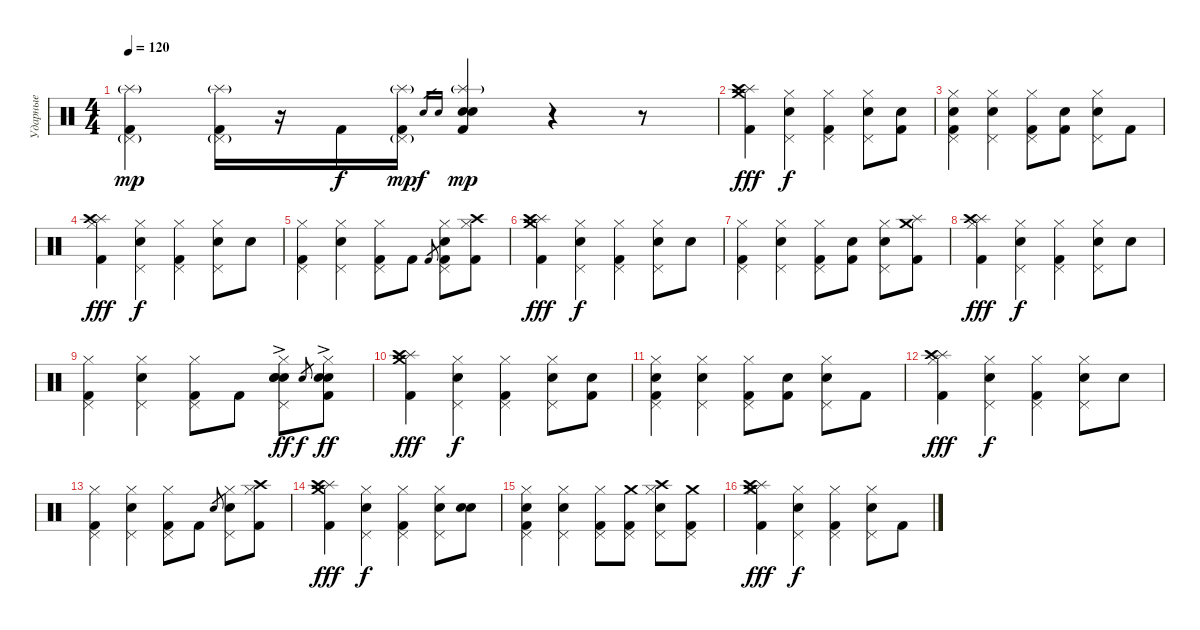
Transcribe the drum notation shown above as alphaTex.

\track ("Ударные" "Ударные") {instrument percussion bank 2}
\staff {score}
\articulation defaults
\ts (4 4)
\tempo 120
\clef neutral
\ks c
("Kick (hit) 2" "Pedal Hi-Hat (hit)"{g} "Splash (hit)"{g}).4{dy mp} ("Kick (hit) 2" "Pedal Hi-Hat (hit)"{g} "Splash (hit)"{g}).16 r.16 "Kick (hit) 2".16{dy f} ("Kick (hit) 2" "Pedal Hi-Hat (hit)"{g} "Splash (hit)"{g}).16{dy mp} "Electric Snare (hit)".16{gr dy f} "Snare (hit) 2".16{gr} ("Kick (hit) 2" "Electric Snare (hit)" "Splash (hit)"{g} "Snare (hit) 2").4{dy mp} r.4 r.8 |
("Kick (hit) 2" "Splash (hit)" "Crash medium (hit)" "Crash high (hit)").4{dy fff} ("Snare (hit) 2" "Pedal Hi-Hat (hit)" "Hi-Hat (closed)").4{dy f} ("Kick (hit) 2" "Pedal Hi-Hat (hit)" "Hi-Hat (closed)").4 ("Snare (hit) 2" "Pedal Hi-Hat (hit)" "Hi-Hat (closed)").8 ("Kick (hit) 2" "Snare (hit)").8 |
("Kick (hit) 2" "Snare (hit)" "Pedal Hi-Hat (hit)" "Hi-Hat (closed)").4 ("Snare (hit) 2" "Pedal Hi-Hat (hit)" "Hi-Hat (closed)").4 ("Kick (hit) 2" "Pedal Hi-Hat (hit)" "Hi-Hat (closed)").8 ("Kick (hit) 2" "Snare (hit)").8 ("Snare (hit) 2" "Pedal Hi-Hat (hit)" "Hi-Hat (closed)").8 "Kick (hit) 2".8 |
("Kick (hit) 2" "Splash (hit)" "Crash high (hit)" "Hi-Hat (closed)").4{dy fff} ("Snare (hit) 2" "Pedal Hi-Hat (hit)" "Hi-Hat (closed)").4{dy f} ("Kick (hit) 2" "Pedal Hi-Hat (hit)" "Hi-Hat (closed)").4 ("Snare (hit) 2" "Pedal Hi-Hat (hit)" "Hi-Hat (closed)").8 "Snare (hit)".8 |
("Kick (hit) 2" "Pedal Hi-Hat (hit)" "Hi-Hat (closed)").4 ("Snare (hit) 2" "Pedal Hi-Hat (hit)" "Hi-Hat (closed)").4 ("Kick (hit) 2" "Pedal Hi-Hat (hit)" "Hi-Hat (closed)").8 "Kick (hit) 2".8 "Kick (hit) 2".8{gr} ("Snare (hit) 2" "Kick (hit) 2" "Pedal Hi-Hat (hit)" "Hi-Hat (closed)").8 ("Kick (hit) 2" "Hi-Hat (closed)" "Crash high (hit)").8 |
("Kick (hit) 2" "Splash (hit)" "Crash medium (hit)" "Crash high (hit)").4{dy fff} ("Snare (hit) 2" "Pedal Hi-Hat (hit)" "Hi-Hat (closed)").4{dy f} ("Kick (hit) 2" "Pedal Hi-Hat (hit)" "Hi-Hat (closed)").4 ("Snare (hit) 2" "Pedal Hi-Hat (hit)" "Hi-Hat (closed)").8 "Snare (hit)".8 |
("Kick (hit) 2" "Pedal Hi-Hat (hit)" "Hi-Hat (closed)").4 ("Snare (hit) 2" "Pedal Hi-Hat (hit)" "Hi-Hat (closed)").4 ("Kick (hit) 2" "Pedal Hi-Hat (hit)" "Hi-Hat (closed)").8 ("Kick (hit) 2" "Snare (hit)").8 ("Snare (hit) 2" "Pedal Hi-Hat (hit)" "Hi-Hat (closed)").8 ("Kick (hit) 2" "Crash medium (hit)" "Splash (hit)").8 |
("Kick (hit) 2" "Splash (hit)" "Crash high (hit)" "Hi-Hat (closed)").4{dy fff} ("Snare (hit) 2" "Pedal Hi-Hat (hit)" "Hi-Hat (closed)").4{dy f} ("Kick (hit) 2" "Pedal Hi-Hat (hit)" "Hi-Hat (closed)").4 ("Snare (hit) 2" "Pedal Hi-Hat (hit)" "Hi-Hat (closed)").8 "Snare (hit)".8 |
("Kick (hit) 2" "Pedal Hi-Hat (hit)" "Hi-Hat (closed)").4 ("Snare (hit) 2" "Pedal Hi-Hat (hit)" "Hi-Hat (closed)").4 ("Kick (hit) 2" "Pedal Hi-Hat (hit)" "Hi-Hat (closed)").8 "Kick (hit) 2".8 ("Snare (hit) 2" "Snare (hit)" "Pedal Hi-Hat (hit)" "Hi-Hat (closed)" "Snare (hit) 2"{ac}).8{dy ff} "Snare (hit) 2".8{gr dy f} ("Snare (hit)" "Kick (hit) 2" "Hi-Hat (closed)" "Snare (hit) 2"{ac}).8{dy ff} |
("Kick (hit) 2" "Splash (hit)" "Crash medium (hit)" "Crash high (hit)").4{dy fff} ("Snare (hit) 2" "Pedal Hi-Hat (hit)" "Hi-Hat (closed)").4{dy f} ("Kick (hit) 2" "Pedal Hi-Hat (hit)" "Hi-Hat (closed)").4 ("Snare (hit) 2" "Pedal Hi-Hat (hit)" "Hi-Hat (closed)").8 ("Kick (hit) 2" "Snare (hit)").8 |
("Kick (hit) 2" "Snare (hit)" "Pedal Hi-Hat (hit)" "Hi-Hat (closed)").4 ("Snare (hit) 2" "Pedal Hi-Hat (hit)" "Hi-Hat (closed)").4 ("Kick (hit) 2" "Pedal Hi-Hat (hit)" "Hi-Hat (closed)").8 ("Kick (hit) 2" "Snare (hit)").8 ("Snare (hit) 2" "Pedal Hi-Hat (hit)" "Hi-Hat (closed)").8 "Kick (hit) 2".8 |
("Kick (hit) 2" "Splash (hit)" "Crash high (hit)" "Hi-Hat (closed)").4{dy fff} ("Snare (hit) 2" "Pedal Hi-Hat (hit)" "Hi-Hat (closed)").4{dy f} ("Kick (hit) 2" "Pedal Hi-Hat (hit)" "Hi-Hat (closed)").4 ("Snare (hit) 2" "Pedal Hi-Hat (hit)" "Hi-Hat (closed)").8 "Snare (hit)".8 |
("Kick (hit) 2" "Pedal Hi-Hat (hit)" "Hi-Hat (closed)").4 ("Snare (hit) 2" "Pedal Hi-Hat (hit)" "Hi-Hat (closed)").4 ("Kick (hit) 2" "Pedal Hi-Hat (hit)" "Hi-Hat (closed)").8 "Kick (hit) 2".8 "Snare (hit) 2".8{gr} ("Snare (hit) 2" "Pedal Hi-Hat (hit)" "Hi-Hat (closed)").8 ("Kick (hit) 2" "Hi-Hat (closed)" "Crash high (hit)").8 |
("Kick (hit) 2" "Splash (hit)" "Crash medium (hit)" "Crash high (hit)").4{dy fff} ("Snare (hit) 2" "Pedal Hi-Hat (hit)" "Hi-Hat (closed)").4{dy f} ("Kick (hit) 2" "Pedal Hi-Hat (hit)" "Hi-Hat (closed)").4 ("Snare (hit) 2" "Pedal Hi-Hat (hit)" "Hi-Hat (closed)").8 ("Snare (hit)" "Snare (hit)").8 |
("Kick (hit) 2" "Snare (hit)" "Pedal Hi-Hat (hit)" "Hi-Hat (closed)").4 ("Snare (hit) 2" "Pedal Hi-Hat (hit)" "Hi-Hat (closed)").4 ("Kick (hit) 2" "Pedal Hi-Hat (hit)" "Hi-Hat (closed)").8 ("Kick (hit) 2" "Crash medium (hit)" "Pedal Hi-Hat (hit)").8 ("Snare (hit) 2" "Pedal Hi-Hat (hit)" "Hi-Hat (closed)" "Crash high (hit)").8 ("Kick (hit) 2" "Crash medium (hit)" "Pedal Hi-Hat (hit)").8 |
("Kick (hit) 2" "Splash (hit)" "Crash high (hit)" "Hi-Hat (closed)" "Crash medium (hit)").4{dy fff} ("Snare (hit) 2" "Pedal Hi-Hat (hit)" "Hi-Hat (closed)").4{dy f} ("Kick (hit) 2" "Pedal Hi-Hat (hit)" "Hi-Hat (closed)").4 ("Snare (hit) 2" "Pedal Hi-Hat (hit)" "Hi-Hat (closed)").8 "Kick (hit) 2".8
